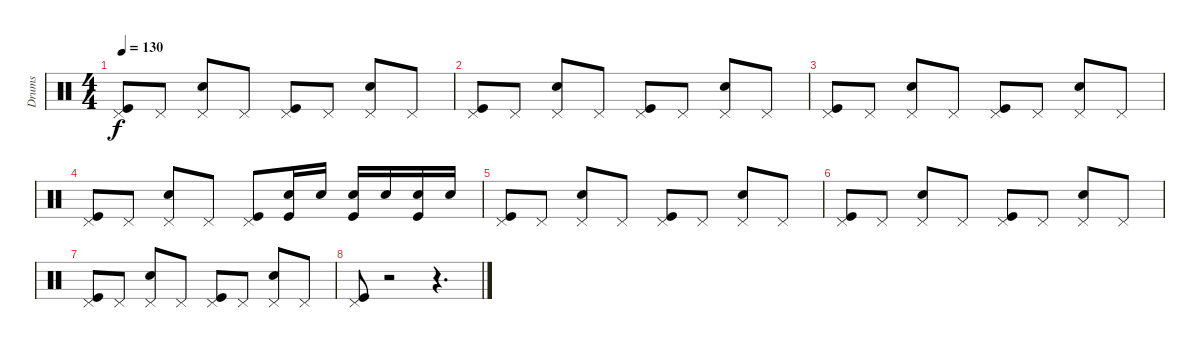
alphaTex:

\track ("Drums" "Drums") {instrument percussion}
\staff {score}
\articulation defaults
\ts (4 4)
\tempo 130
\clef neutral
\ks c
("Pedal Hi-Hat (hit)" "Kick (hit)").8{dy f} "Pedal Hi-Hat (hit)".8 ("Pedal Hi-Hat (hit)" "Electric Snare (hit)").8 "Pedal Hi-Hat (hit)".8 ("Pedal Hi-Hat (hit)" "Kick (hit)").8 "Pedal Hi-Hat (hit)".8 ("Pedal Hi-Hat (hit)" "Electric Snare (hit)").8 "Pedal Hi-Hat (hit)".8 |
("Pedal Hi-Hat (hit)" "Kick (hit)").8 "Pedal Hi-Hat (hit)".8 ("Pedal Hi-Hat (hit)" "Electric Snare (hit)").8 "Pedal Hi-Hat (hit)".8 ("Pedal Hi-Hat (hit)" "Kick (hit)").8 "Pedal Hi-Hat (hit)".8 ("Pedal Hi-Hat (hit)" "Electric Snare (hit)").8 "Pedal Hi-Hat (hit)".8 |
("Pedal Hi-Hat (hit)" "Kick (hit)").8 "Pedal Hi-Hat (hit)".8 ("Pedal Hi-Hat (hit)" "Electric Snare (hit)").8 "Pedal Hi-Hat (hit)".8 ("Pedal Hi-Hat (hit)" "Kick (hit)").8 "Pedal Hi-Hat (hit)".8 ("Pedal Hi-Hat (hit)" "Electric Snare (hit)").8 "Pedal Hi-Hat (hit)".8 |
("Pedal Hi-Hat (hit)" "Kick (hit)").8 "Pedal Hi-Hat (hit)".8 ("Pedal Hi-Hat (hit)" "Electric Snare (hit)").8 "Pedal Hi-Hat (hit)".8 ("Pedal Hi-Hat (hit)" "Kick (hit)").8 ("Electric Snare (hit)" "Kick (hit)").16 "Electric Snare (hit)".16 ("Electric Snare (hit)" "Kick (hit)").16 "Electric Snare (hit)".16 ("Electric Snare (hit)" "Kick (hit)").16 "Electric Snare (hit)".16 |
("Pedal Hi-Hat (hit)" "Kick (hit)").8 "Pedal Hi-Hat (hit)".8 ("Pedal Hi-Hat (hit)" "Electric Snare (hit)").8 "Pedal Hi-Hat (hit)".8 ("Pedal Hi-Hat (hit)" "Kick (hit)").8 "Pedal Hi-Hat (hit)".8 ("Pedal Hi-Hat (hit)" "Electric Snare (hit)").8 "Pedal Hi-Hat (hit)".8 |
("Pedal Hi-Hat (hit)" "Kick (hit)").8 "Pedal Hi-Hat (hit)".8 ("Pedal Hi-Hat (hit)" "Electric Snare (hit)").8 "Pedal Hi-Hat (hit)".8 ("Pedal Hi-Hat (hit)" "Kick (hit)").8 "Pedal Hi-Hat (hit)".8 ("Pedal Hi-Hat (hit)" "Electric Snare (hit)").8 "Pedal Hi-Hat (hit)".8 |
("Pedal Hi-Hat (hit)" "Kick (hit)").8 "Pedal Hi-Hat (hit)".8 ("Pedal Hi-Hat (hit)" "Electric Snare (hit)").8 "Pedal Hi-Hat (hit)".8 ("Pedal Hi-Hat (hit)" "Kick (hit)").8 "Pedal Hi-Hat (hit)".8 ("Pedal Hi-Hat (hit)" "Electric Snare (hit)").8 "Pedal Hi-Hat (hit)".8 |
("Pedal Hi-Hat (hit)" "Kick (hit)").8 r.2 r.4{d}
